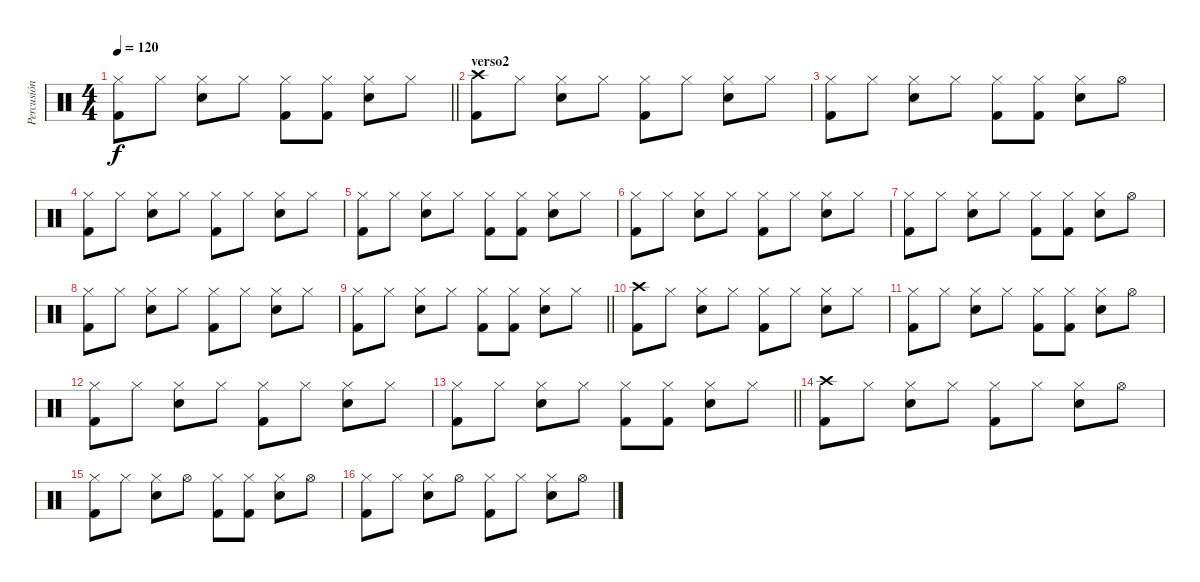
\track ("Percusión" "Percusión") {instrument percussion}
\staff {score}
\articulation defaults
\ts (4 4)
\tempo 120
\clef neutral
\barLineRight lightlight
\ks c
("Hi-Hat (closed)" "Kick (hit) 2").8{dy f} "Hi-Hat (closed)".8 ("Hi-Hat (closed)" "Electric Snare (hit)").8 "Hi-Hat (closed)".8 ("Hi-Hat (closed)" "Kick (hit) 2").8 ("Hi-Hat (closed)" "Kick (hit) 2").8 ("Hi-Hat (closed)" "Electric Snare (hit)").8 "Hi-Hat (closed)".8 |
\section ("" "verso2")
("Crash high (hit)" "Kick (hit) 2").8 "Hi-Hat (closed)".8 ("Hi-Hat (closed)" "Electric Snare (hit)").8 "Hi-Hat (closed)".8 ("Hi-Hat (closed)" "Kick (hit) 2").8 "Hi-Hat (closed)".8 ("Hi-Hat (closed)" "Electric Snare (hit)").8 "Hi-Hat (closed)".8 |
("Hi-Hat (closed)" "Kick (hit) 2").8 "Hi-Hat (closed)".8 ("Hi-Hat (closed)" "Electric Snare (hit)").8 "Hi-Hat (closed)".8 ("Hi-Hat (closed)" "Kick (hit) 2").8 ("Hi-Hat (closed)" "Kick (hit) 2").8 ("Hi-Hat (closed)" "Electric Snare (hit)").8 "Hi-Hat (open)".8 |
("Hi-Hat (closed)" "Kick (hit) 2").8 "Hi-Hat (closed)".8 ("Hi-Hat (closed)" "Electric Snare (hit)").8 "Hi-Hat (closed)".8 ("Hi-Hat (closed)" "Kick (hit) 2").8 "Hi-Hat (closed)".8 ("Hi-Hat (closed)" "Electric Snare (hit)").8 "Hi-Hat (closed)".8 |
("Hi-Hat (closed)" "Kick (hit) 2").8 "Hi-Hat (closed)".8 ("Hi-Hat (closed)" "Electric Snare (hit)").8 "Hi-Hat (closed)".8 ("Hi-Hat (closed)" "Kick (hit) 2").8 ("Hi-Hat (closed)" "Kick (hit) 2").8 ("Hi-Hat (closed)" "Electric Snare (hit)").8 "Hi-Hat (closed)".8 |
("Hi-Hat (closed)" "Kick (hit) 2").8 "Hi-Hat (closed)".8 ("Hi-Hat (closed)" "Electric Snare (hit)").8 "Hi-Hat (closed)".8 ("Hi-Hat (closed)" "Kick (hit) 2").8 "Hi-Hat (closed)".8 ("Hi-Hat (closed)" "Electric Snare (hit)").8 "Hi-Hat (closed)".8 |
("Hi-Hat (closed)" "Kick (hit) 2").8 "Hi-Hat (closed)".8 ("Hi-Hat (closed)" "Electric Snare (hit)").8 "Hi-Hat (closed)".8 ("Hi-Hat (closed)" "Kick (hit) 2").8 ("Hi-Hat (closed)" "Kick (hit) 2").8 ("Hi-Hat (closed)" "Electric Snare (hit)").8 "Hi-Hat (open)".8 |
("Hi-Hat (closed)" "Kick (hit) 2").8 "Hi-Hat (closed)".8 ("Hi-Hat (closed)" "Electric Snare (hit)").8 "Hi-Hat (closed)".8 ("Hi-Hat (closed)" "Kick (hit) 2").8 "Hi-Hat (closed)".8 ("Hi-Hat (closed)" "Electric Snare (hit)").8 "Hi-Hat (closed)".8 |
\barLineRight lightlight
("Hi-Hat (closed)" "Kick (hit) 2").8 "Hi-Hat (closed)".8 ("Hi-Hat (closed)" "Electric Snare (hit)").8 "Hi-Hat (closed)".8 ("Hi-Hat (closed)" "Kick (hit) 2").8 ("Hi-Hat (closed)" "Kick (hit) 2").8 ("Hi-Hat (closed)" "Electric Snare (hit)").8 "Hi-Hat (closed)".8 |
\section ("" "")
("Crash high (hit)" "Kick (hit) 2").8 "Hi-Hat (closed)".8 ("Hi-Hat (closed)" "Electric Snare (hit)").8 "Hi-Hat (closed)".8 ("Hi-Hat (closed)" "Kick (hit) 2").8 "Hi-Hat (closed)".8 ("Hi-Hat (closed)" "Electric Snare (hit)").8 "Hi-Hat (closed)".8 |
("Hi-Hat (closed)" "Kick (hit) 2").8 "Hi-Hat (closed)".8 ("Hi-Hat (closed)" "Electric Snare (hit)").8 "Hi-Hat (closed)".8 ("Hi-Hat (closed)" "Kick (hit) 2").8 ("Hi-Hat (closed)" "Kick (hit) 2").8 ("Hi-Hat (closed)" "Electric Snare (hit)").8 "Hi-Hat (open)".8 |
("Hi-Hat (closed)" "Kick (hit) 2").8 "Hi-Hat (closed)".8 ("Hi-Hat (closed)" "Electric Snare (hit)").8 "Hi-Hat (closed)".8 ("Hi-Hat (closed)" "Kick (hit) 2").8 "Hi-Hat (closed)".8 ("Hi-Hat (closed)" "Electric Snare (hit)").8 "Hi-Hat (closed)".8 |
\barLineRight lightlight
("Hi-Hat (closed)" "Kick (hit) 2").8 "Hi-Hat (closed)".8 ("Hi-Hat (closed)" "Electric Snare (hit)").8 "Hi-Hat (closed)".8 ("Hi-Hat (closed)" "Kick (hit) 2").8 ("Hi-Hat (closed)" "Kick (hit) 2").8 ("Hi-Hat (closed)" "Electric Snare (hit)").8 "Hi-Hat (closed)".8 |
("Crash high (hit)" "Kick (hit) 2").8 "Hi-Hat (closed)".8 ("Hi-Hat (closed)" "Electric Snare (hit)").8 "Hi-Hat (closed)".8 ("Hi-Hat (closed)" "Kick (hit) 2").8 "Hi-Hat (closed)".8 ("Hi-Hat (closed)" "Electric Snare (hit)").8 "Hi-Hat (open)".8 |
("Hi-Hat (closed)" "Kick (hit) 2").8 "Hi-Hat (closed)".8 ("Hi-Hat (closed)" "Electric Snare (hit)").8 "Hi-Hat (open)".8 ("Hi-Hat (closed)" "Kick (hit) 2").8 ("Hi-Hat (closed)" "Kick (hit) 2").8 ("Hi-Hat (closed)" "Electric Snare (hit)").8 "Hi-Hat (open)".8 |
("Hi-Hat (closed)" "Kick (hit) 2").8 "Hi-Hat (closed)".8 ("Hi-Hat (closed)" "Electric Snare (hit)").8 "Hi-Hat (open)".8 ("Hi-Hat (closed)" "Kick (hit) 2").8 "Hi-Hat (closed)".8 ("Hi-Hat (closed)" "Electric Snare (hit)").8 "Hi-Hat (open)".8
